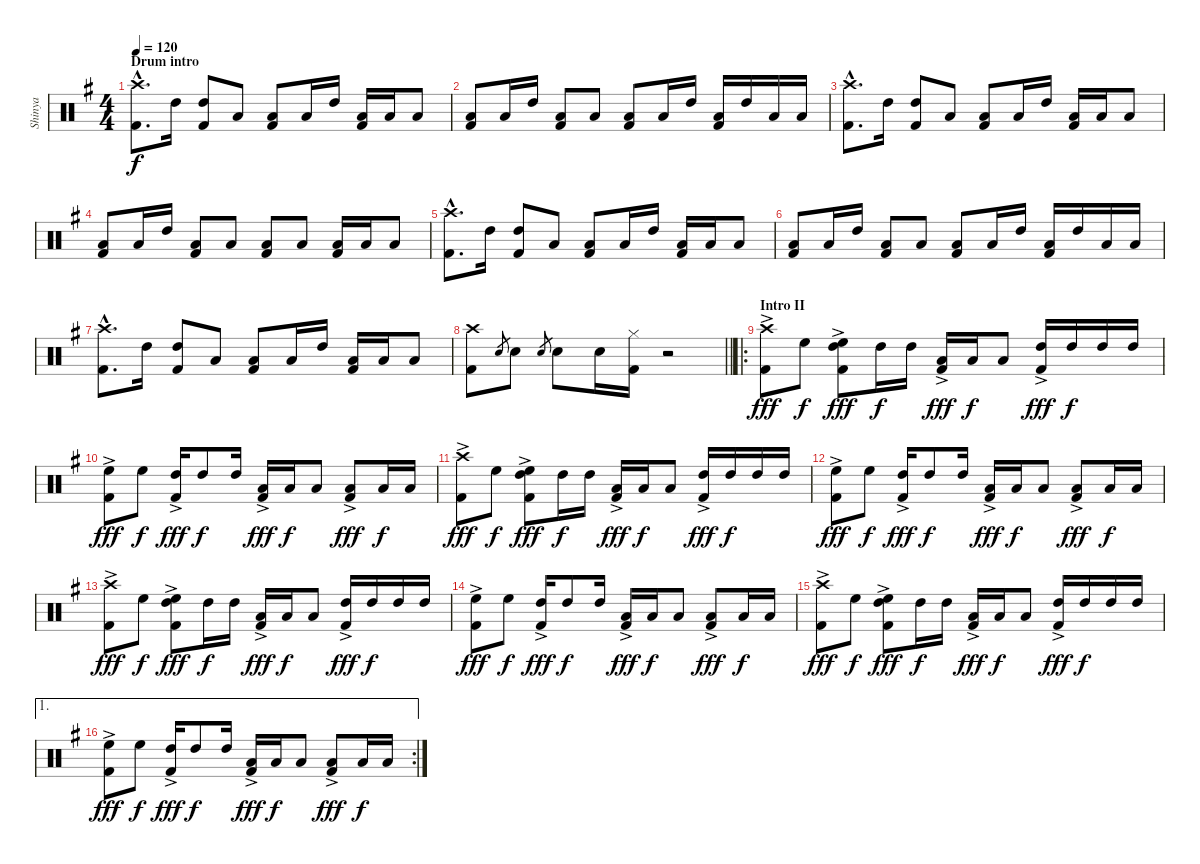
\track ("Shinya" "Shinya") {instrument percussion}
\staff {score}
\articulation defaults
\ts (4 4)
\section ("" "Drum intro")
\tempo 120
\clef neutral
\ks g
("Crash high (hit)"{hac} "Kick (hit) 2"{hac}).8{d dy f} "High Tom (hit)".16 ("High Tom (hit)" "Kick (hit) 2").8 "Low Floor Tom (hit)".8 ("Low Floor Tom (hit)" "Kick (hit) 2").8 "Low Floor Tom (hit)".16 "High Tom (hit)".16 ("Low Floor Tom (hit)" "Kick (hit) 2").16 "Low Tom (hit)".16 "Low Floor Tom (hit)".8 |
("Low Floor Tom (hit)" "Kick (hit) 2").8 "Low Floor Tom (hit)".16 "High Tom (hit)".16 ("Low Floor Tom (hit)" "Kick (hit) 2").8 "Low Floor Tom (hit)".8 ("Low Floor Tom (hit)" "Kick (hit) 2").8 "Low Floor Tom (hit)".16 "High Tom (hit)".16 ("Low Floor Tom (hit)" "Kick (hit) 2").16 "High Tom (hit)".16 "Low Floor Tom (hit)".16 "Low Floor Tom (hit)".16 |
("Crash high (hit)"{hac} "Kick (hit) 2"{hac}).8{d} "High Tom (hit)".16 ("High Tom (hit)" "Kick (hit) 2").8 "Low Floor Tom (hit)".8 ("Low Floor Tom (hit)" "Kick (hit) 2").8 "Low Floor Tom (hit)".16 "High Tom (hit)".16 ("Low Floor Tom (hit)" "Kick (hit) 2").16 "Low Tom (hit)".16 "Low Floor Tom (hit)".8 |
("Low Floor Tom (hit)" "Kick (hit) 2").8 "Low Floor Tom (hit)".16 "High Tom (hit)".16 ("Low Floor Tom (hit)" "Kick (hit) 2").8 "Low Floor Tom (hit)".8 ("Low Floor Tom (hit)" "Kick (hit) 2").8 "Low Floor Tom (hit)".8 ("Low Floor Tom (hit)" "Kick (hit) 2").16 "Low Tom (hit)".16 "Low Floor Tom (hit)".8 |
("Crash high (hit)"{hac} "Kick (hit) 2"{hac}).8{d} "High Tom (hit)".16 ("High Tom (hit)" "Kick (hit) 2").8 "Low Floor Tom (hit)".8 ("Low Floor Tom (hit)" "Kick (hit) 2").8 "Low Floor Tom (hit)".16 "High Tom (hit)".16 ("Low Floor Tom (hit)" "Kick (hit) 2").16 "Low Tom (hit)".16 "Low Floor Tom (hit)".8 |
("Low Floor Tom (hit)" "Kick (hit) 2").8 "Low Floor Tom (hit)".16 "High Tom (hit)".16 ("Low Floor Tom (hit)" "Kick (hit) 2").8 "Low Floor Tom (hit)".8 ("Low Floor Tom (hit)" "Kick (hit) 2").8 "Low Floor Tom (hit)".16 "High Tom (hit)".16 ("Low Floor Tom (hit)" "Kick (hit) 2").16 "High Tom (hit)".16 "Low Floor Tom (hit)".16 "Low Floor Tom (hit)".16 |
("Crash high (hit)"{hac} "Kick (hit) 2"{hac}).8{d} "High Tom (hit)".16 ("High Tom (hit)" "Kick (hit) 2").8 "Low Floor Tom (hit)".8 ("Low Floor Tom (hit)" "Kick (hit) 2").8 "Low Floor Tom (hit)".16 "High Tom (hit)".16 ("Low Floor Tom (hit)" "Kick (hit) 2").16 "Low Tom (hit)".16 "Low Floor Tom (hit)".8 |
\barLineRight lightlight
("Crash high (hit)" "Kick (hit) 2").8 "Snare (hit) 2".8{gr} "Snare (hit) 2".8 "Snare (hit) 2".8{gr} "Snare (hit) 2".8 "Snare (hit) 2".16 ("Hi-Hat (closed)" "Kick (hit) 2").16 r.2 |
\ro
\section ("" "Intro II")
("Crash high (hit)"{ac} "Kick (hit) 2"{ac}).8{dy fff} "High Floor Tom (hit)".8{dy f} ("High Floor Tom (hit)" "High Tom (hit)" "Kick (hit) 2"{ac}).8{dy fff} "High Tom (hit)".16{dy f} "High Tom (hit)".16 ("Low Tom (hit)" "Kick (hit) 2"{ac}).16{dy fff} "Low Tom (hit)".16{dy f} "Low Tom (hit)".8 ("High Tom (hit)" "Kick (hit) 2"{ac}).16{dy fff} "High Tom (hit)".16{dy f} "High Tom (hit)".16 "High Tom (hit)".16 |
("High Floor Tom (hit)" "Kick (hit) 2"{ac}).8{dy fff} "High Floor Tom (hit)".8{dy f} ("High Tom (hit)" "Kick (hit) 2"{ac}).16{dy fff} "High Tom (hit)".8{dy f} "High Tom (hit)".16 ("Low Tom (hit)" "Kick (hit) 2"{ac}).16{dy fff} "Low Tom (hit)".16{dy f} "Low Tom (hit)".8 ("Low Floor Tom (hit)" "Kick (hit) 2"{ac}).8{dy fff} "Low Floor Tom (hit)".16{dy f} "Low Floor Tom (hit)".16 |
("Crash high (hit)"{ac} "Kick (hit) 2"{ac}).8{dy fff} "High Floor Tom (hit)".8{dy f} ("High Floor Tom (hit)" "High Tom (hit)" "Kick (hit) 2"{ac}).8{dy fff} "High Tom (hit)".16{dy f} "High Tom (hit)".16 ("Low Tom (hit)" "Kick (hit) 2"{ac}).16{dy fff} "Low Tom (hit)".16{dy f} "Low Tom (hit)".8 ("High Tom (hit)" "Kick (hit) 2"{ac}).16{dy fff} "High Tom (hit)".16{dy f} "High Tom (hit)".16 "High Tom (hit)".16 |
("High Floor Tom (hit)" "Kick (hit) 2"{ac}).8{dy fff} "High Floor Tom (hit)".8{dy f} ("High Tom (hit)" "Kick (hit) 2"{ac}).16{dy fff} "High Tom (hit)".8{dy f} "High Tom (hit)".16 ("Low Tom (hit)" "Kick (hit) 2"{ac}).16{dy fff} "Low Tom (hit)".16{dy f} "Low Tom (hit)".8 ("Low Floor Tom (hit)" "Kick (hit) 2"{ac}).8{dy fff} "Low Floor Tom (hit)".16{dy f} "Low Floor Tom (hit)".16 |
("Crash high (hit)"{ac} "Kick (hit) 2"{ac}).8{dy fff} "High Floor Tom (hit)".8{dy f} ("High Floor Tom (hit)" "High Tom (hit)" "Kick (hit) 2"{ac}).8{dy fff} "High Tom (hit)".16{dy f} "High Tom (hit)".16 ("Low Tom (hit)" "Kick (hit) 2"{ac}).16{dy fff} "Low Tom (hit)".16{dy f} "Low Tom (hit)".8 ("High Tom (hit)" "Kick (hit) 2"{ac}).16{dy fff} "High Tom (hit)".16{dy f} "High Tom (hit)".16 "High Tom (hit)".16 |
("High Floor Tom (hit)" "Kick (hit) 2"{ac}).8{dy fff} "High Floor Tom (hit)".8{dy f} ("High Tom (hit)" "Kick (hit) 2"{ac}).16{dy fff} "High Tom (hit)".8{dy f} "High Tom (hit)".16 ("Low Tom (hit)" "Kick (hit) 2"{ac}).16{dy fff} "Low Tom (hit)".16{dy f} "Low Tom (hit)".8 ("Low Floor Tom (hit)" "Kick (hit) 2"{ac}).8{dy fff} "Low Floor Tom (hit)".16{dy f} "Low Floor Tom (hit)".16 |
("Crash high (hit)"{ac} "Kick (hit) 2"{ac}).8{dy fff} "High Floor Tom (hit)".8{dy f} ("High Floor Tom (hit)" "High Tom (hit)" "Kick (hit) 2"{ac}).8{dy fff} "High Tom (hit)".16{dy f} "High Tom (hit)".16 ("Low Tom (hit)" "Kick (hit) 2"{ac}).16{dy fff} "Low Tom (hit)".16{dy f} "Low Tom (hit)".8 ("High Tom (hit)" "Kick (hit) 2"{ac}).16{dy fff} "High Tom (hit)".16{dy f} "High Tom (hit)".16 "High Tom (hit)".16 |
\ae 1
\rc 2
("High Floor Tom (hit)" "Kick (hit) 2"{ac}).8{dy fff} "High Floor Tom (hit)".8{dy f} ("High Tom (hit)" "Kick (hit) 2"{ac}).16{dy fff} "High Tom (hit)".8{dy f} "High Tom (hit)".16 ("Low Tom (hit)" "Kick (hit) 2"{ac}).16{dy fff} "Low Tom (hit)".16{dy f} "Low Tom (hit)".8 ("Low Floor Tom (hit)" "Kick (hit) 2"{ac}).8{dy fff} "Low Floor Tom (hit)".16{dy f} "Low Floor Tom (hit)".16
